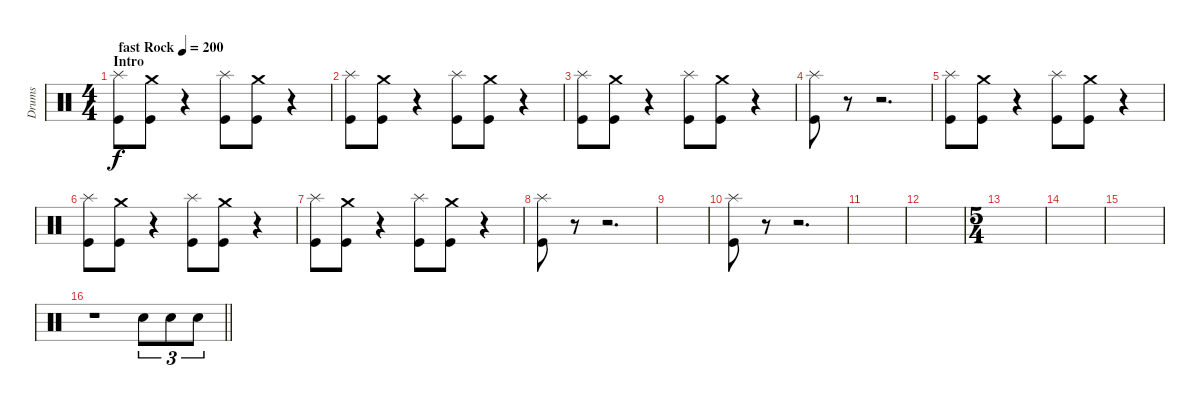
\track ("Drums" "Drums") {instrument percussion}
\staff {score}
\articulation defaults
\ts (4 4)
\section ("" "Intro")
\tempo (200 "fast Rock")
\clef neutral
\ks c
("Kick (hit)" "Splash (hit)").8{dy f} ("Kick (hit)" "Crash medium (hit)").8 r.4 ("Kick (hit)" "Splash (hit)").8 ("Kick (hit)" "Crash medium (hit)").8 r.4 |
("Kick (hit)" "Splash (hit)").8 ("Kick (hit)" "Crash medium (hit)").8 r.4 ("Kick (hit)" "Splash (hit)").8 ("Kick (hit)" "Crash medium (hit)").8 r.4 |
("Kick (hit)" "Splash (hit)").8 ("Kick (hit)" "Crash medium (hit)").8 r.4 ("Kick (hit)" "Splash (hit)").8 ("Kick (hit)" "Crash medium (hit)").8 r.4 |
("Kick (hit)" "Splash (hit)").8 r.8 r.2{d} |
("Kick (hit)" "Splash (hit)").8 ("Kick (hit)" "Crash medium (hit)").8 r.4 ("Kick (hit)" "Splash (hit)").8 ("Kick (hit)" "Crash medium (hit)").8 r.4 |
("Kick (hit)" "Splash (hit)").8 ("Kick (hit)" "Crash medium (hit)").8 r.4 ("Kick (hit)" "Splash (hit)").8 ("Kick (hit)" "Crash medium (hit)").8 r.4 |
("Kick (hit)" "Splash (hit)").8 ("Kick (hit)" "Crash medium (hit)").8 r.4 ("Kick (hit)" "Splash (hit)").8 ("Kick (hit)" "Crash medium (hit)").8 r.4 |
("Kick (hit)" "Splash (hit)").8 r.8 r.2{d} |
|
("Kick (hit)" "Splash (hit)").8 r.8 r.2{d} |
|
|
\ts (5 4)
|
|
|
\barLineRight lightlight
r.1 "Snare (hit) 2".8{tu (3 2)} "Snare (hit) 2".8{tu (3 2)} "Snare (hit) 2".8{tu (3 2)}
